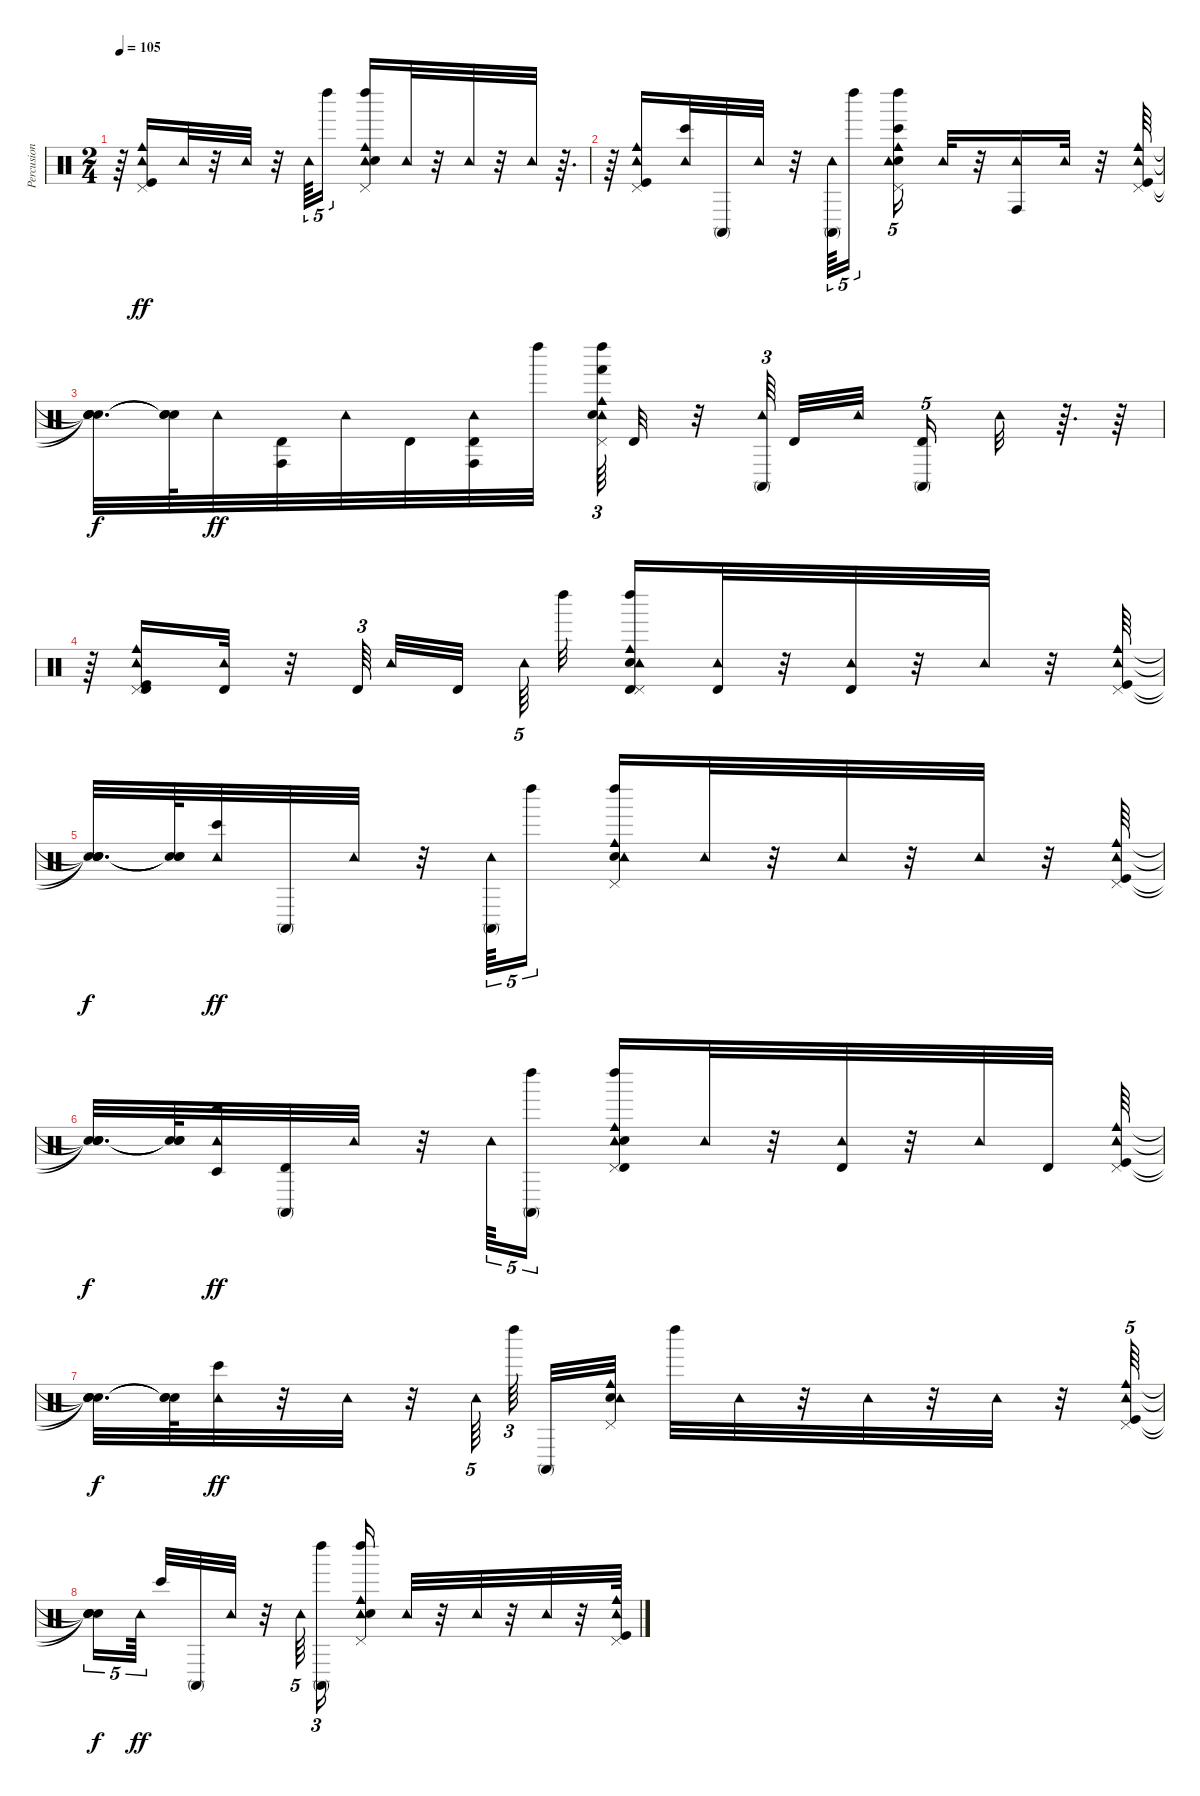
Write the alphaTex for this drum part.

\track ("Percusion" "Percusion") {instrument percussion}
\staff {score}
\articulation defaults
\ts (2 4)
\tempo 105
\clef neutral
\ks c
r.64{dy ff} ("Pedal Hi-Hat (hit)" "Kick (hit)" "Cowbell medium (hit)" "Tambourine (hit)").16 "Tambourine (hit)".32 r.32 "Tambourine (hit)".32 r.32 "Tambourine (hit)".64{tu (5 4)} "Left Maraca (hit)".16{tu (5 4)} ("Pedal Hi-Hat (hit)" "Cowbell medium (hit)" "Tambourine (hit)" "Electric Snare (hit)" "Left Maraca (hit)").16 "Tambourine (hit)".32 r.32 "Tambourine (hit)".32 r.32 "Tambourine (hit)".32 r.64{d} |
r.64 ("Pedal Hi-Hat (hit)" "Tambourine (hit)" "Kick (hit)" "Cowbell medium (hit)").16 ("Tambourine (hit)" "Bongo High (hit)").32 "Conga high (mute)".32 "Tambourine (hit)".32 r.32 ("Conga high (mute)" "Tambourine (hit)").64{tu (5 4)} "Left Maraca (hit)".16{tu (5 4)} ("Pedal Hi-Hat (hit)" "Electric Snare (hit)" "Tambourine (hit)" "Cowbell medium (hit)" "Left Maraca (hit)" "Bongo High (hit)").16{tu (5 4)} "Tambourine (hit)".32 r.32 ("Tambourine (hit)" "Conga high (hit)").16 "Tambourine (hit)".32 r.32 ("Pedal Hi-Hat (hit)" "Tambourine (hit)" "Kick (hit)" "Cowbell medium (hit)").64 |
("Snare (hit)"{t} "Snare (hit)"{t} "Snare (hit)"{t} "Snare (hit)"{t}).32{d dy f} ("Snare (hit)"{t} "Snare (hit)"{t} "Snare (hit)"{t}).64 "Tambourine (hit)".32{dy ff} ("Conga high (hit)" "Timbale high (hit)").32 "Tambourine (hit)".32 "Timbale high (hit)".32 ("Tambourine (hit)" "Conga high (hit)" "Timbale high (hit)").32 "Left Maraca (hit)".32 ("Hand (hit)" "Pedal Hi-Hat (hit)" "Tambourine (hit)" "Cowbell medium (hit)" "Electric Snare (hit)" "Left Maraca (hit)").64{tu (3 2)} "Timbale high (hit)".32 r.32 ("Conga high (mute)" "Tambourine (hit)").64{tu (3 2) beam splitsecondary} "Timbale high (hit)".32 "Tambourine (hit)".32{beam splitsecondary} ("Conga high (mute)" "Timbale high (hit)").16{tu (5 4)} "Tambourine (hit)".32 r.64{d} r.64 |
r.64 ("Pedal Hi-Hat (hit)" "Tambourine (hit)" "Kick (hit)" "Cowbell medium (hit)" "Timbale high (hit)").16 ("Tambourine (hit)" "Timbale high (hit)").32 r.32 "Timbale high (hit)".64{tu (3 2) beam splitsecondary} "Tambourine (hit)".32 "Timbale high (hit)".32{beam splitsecondary} "Tambourine (hit)".64{tu (5 4)} "Left Maraca (hit)".32 ("Timbale high (hit)" "Pedal Hi-Hat (hit)" "Electric Snare (hit)" "Cowbell medium (hit)" "Tambourine (hit)" "Left Maraca (hit)").16 ("Tambourine (hit)" "Timbale high (hit)").32 r.32 ("Timbale high (hit)" "Tambourine (hit)").32 r.32 "Tambourine (hit)".32 r.32 ("Pedal Hi-Hat (hit)" "Cowbell medium (hit)" "Tambourine (hit)" "Kick (hit)").64 |
("Snare (hit)"{t} "Snare (hit)"{t} "Snare (hit)"{t} "Snare (hit)"{t}).32{d dy f} ("Snare (hit)"{t} "Snare (hit)"{t} "Snare (hit)"{t}).64 ("Tambourine (hit)" "Bongo High (hit)").32{dy ff} "Conga high (mute)".32 "Tambourine (hit)".32 r.32 ("Conga high (mute)" "Tambourine (hit)").64{tu (5 4)} "Left Maraca (hit)".16{tu (5 4)} ("Pedal Hi-Hat (hit)" "Cowbell medium (hit)" "Electric Snare (hit)" "Tambourine (hit)" "Left Maraca (hit)").16 "Tambourine (hit)".32 r.32 "Tambourine (hit)".32 r.32 "Tambourine (hit)".32 r.32 ("Pedal Hi-Hat (hit)" "Tambourine (hit)" "Kick (hit)" "Cowbell medium (hit)").64 |
("Snare (hit)"{t} "Snare (hit)"{t} "Snare (hit)"{t} "Snare (hit)"{t}).32{d dy f} ("Snare (hit)"{t} "Snare (hit)"{t} "Snare (hit)"{t}).64 ("Tambourine (hit)" "Timbale low (hit)" "Bongo High (hit)").32{dy ff} ("Timbale high (hit)" "Conga high (mute)").32 "Tambourine (hit)".32 r.32 "Tambourine (hit)".64{tu (5 4)} ("Conga high (mute)" "Left Maraca (hit)").16{tu (5 4)} ("Pedal Hi-Hat (hit)" "Tambourine (hit)" "Cowbell medium (hit)" "Electric Snare (hit)" "Timbale high (hit)" "Left Maraca (hit)").16 "Tambourine (hit)".32 r.32 ("Timbale high (hit)" "Tambourine (hit)").32 r.32 "Tambourine (hit)".32 "Timbale high (hit)".32 ("Pedal Hi-Hat (hit)" "Cowbell medium (hit)" "Tambourine (hit)" "Kick (hit)").64 |
("Snare (hit)"{t} "Snare (hit)"{t} "Snare (hit)"{t} "Snare (hit)"{t}).32{d dy f} ("Snare (hit)"{t} "Snare (hit)"{t} "Snare (hit)"{t}).64 ("Tambourine (hit)" "Bongo High (hit)").32{dy ff} r.32 "Tambourine (hit)".32 r.32 "Tambourine (hit)".64{tu (5 4)} "Left Maraca (hit)".64{tu (3 2) beam splitsecondary} "Conga high (mute)".32 ("Pedal Hi-Hat (hit)" "Electric Snare (hit)" "Cowbell medium (hit)" "Tambourine (hit)").32 "Left Maraca (hit)".32 "Tambourine (hit)".32 r.32 "Tambourine (hit)".32 r.32 "Tambourine (hit)".32 r.32 ("Pedal Hi-Hat (hit)" "Tambourine (hit)" "Kick (hit)" "Cowbell medium (hit)").64{tu (5 4)} |
("Snare (hit)"{t} "Snare (hit)"{t} "Snare (hit)"{t} "Snare (hit)"{t}).16{tu (5 4) dy f} "Tambourine (hit)".64{tu (5 4) dy ff beam splitsecondary} "Bongo High (hit)".32 "Conga high (mute)".32 "Tambourine (hit)".32 r.32 "Tambourine (hit)".64{tu (5 4)} ("Left Maraca (hit)" "Conga high (mute)").16{tu (3 2) beam splitsecondary} ("Cowbell medium (hit)" "Tambourine (hit)" "Electric Snare (hit)" "Pedal Hi-Hat (hit)" "Left Maraca (hit)").16 "Tambourine (hit)".32 r.32 "Tambourine (hit)".32 r.32 "Tambourine (hit)".32 r.32 ("Pedal Hi-Hat (hit)" "Tambourine (hit)" "Kick (hit)" "Cowbell medium (hit)").64
